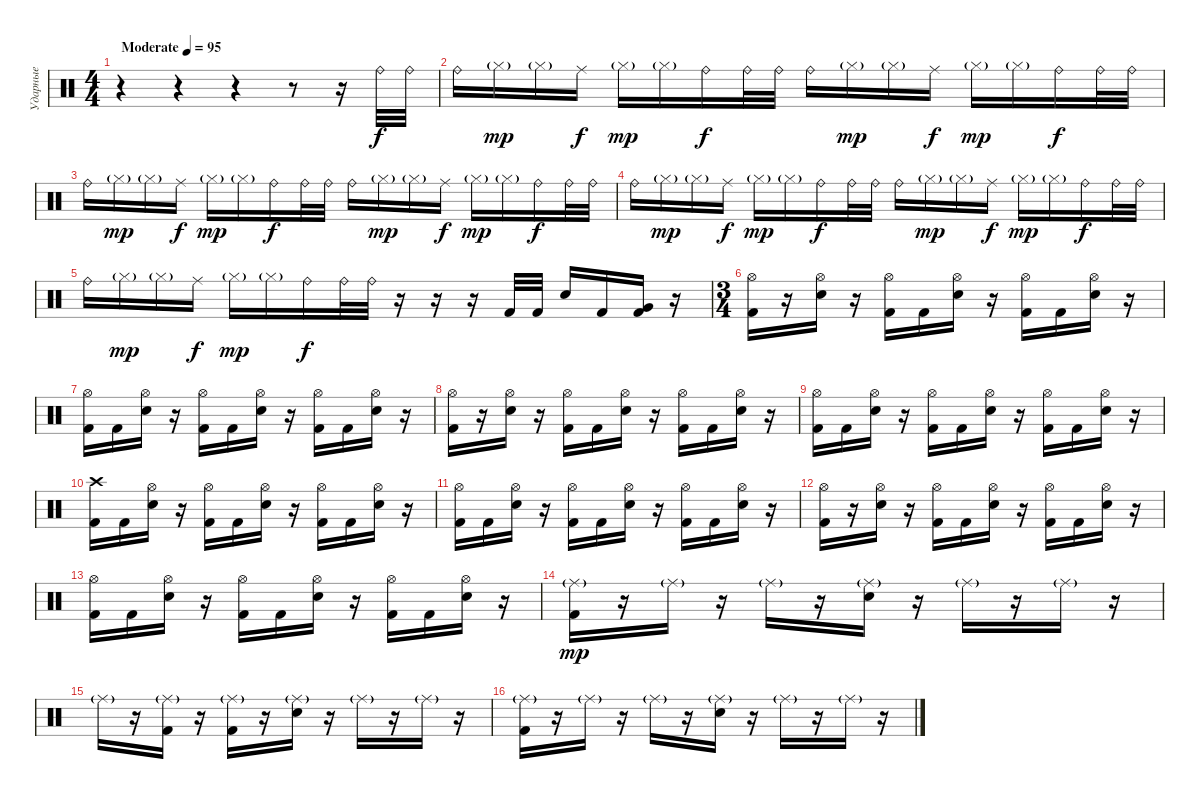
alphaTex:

\track ("Ударные" "Ударные") {instrument percussion}
\staff {score}
\articulation defaults
\ts (4 4)
\tempo (95 "Moderate")
\clef neutral
\ks c
r.4{dy f} r.4 r.4 r.8 r.16 "Ride (bell)".32 "Ride (bell)".32 |
"Ride (bell)".16 "Hi-Hat (closed)"{g}.16{dy mp} "Hi-Hat (closed)"{g}.16 "Ride (middle)".16{dy f} "Hi-Hat (closed)"{g}.16{dy mp} "Hi-Hat (closed)"{g}.16 "Ride (bell)".16{dy f} "Ride (bell)".32 "Ride (bell)".32 "Ride (bell)".16 "Hi-Hat (closed)"{g}.16{dy mp} "Hi-Hat (closed)"{g}.16 "Ride (middle)".16{dy f} "Hi-Hat (closed)"{g}.16{dy mp} "Hi-Hat (closed)"{g}.16 "Ride (bell)".16{dy f} "Ride (bell)".32 "Ride (bell)".32 |
"Ride (bell)".16 "Hi-Hat (closed)"{g}.16{dy mp} "Hi-Hat (closed)"{g}.16 "Ride (middle)".16{dy f} "Hi-Hat (closed)"{g}.16{dy mp} "Hi-Hat (closed)"{g}.16 "Ride (bell)".16{dy f} "Ride (bell)".32 "Ride (bell)".32 "Ride (bell)".16 "Hi-Hat (closed)"{g}.16{dy mp} "Hi-Hat (closed)"{g}.16 "Ride (middle)".16{dy f} "Hi-Hat (closed)"{g}.16{dy mp} "Hi-Hat (closed)"{g}.16 "Ride (bell)".16{dy f} "Ride (bell)".32 "Ride (bell)".32 |
"Ride (bell)".16 "Hi-Hat (closed)"{g}.16{dy mp} "Hi-Hat (closed)"{g}.16 "Ride (middle)".16{dy f} "Hi-Hat (closed)"{g}.16{dy mp} "Hi-Hat (closed)"{g}.16 "Ride (bell)".16{dy f} "Ride (bell)".32 "Ride (bell)".32 "Ride (bell)".16 "Hi-Hat (closed)"{g}.16{dy mp} "Hi-Hat (closed)"{g}.16 "Ride (middle)".16{dy f} "Hi-Hat (closed)"{g}.16{dy mp} "Hi-Hat (closed)"{g}.16 "Ride (bell)".16{dy f} "Ride (bell)".32 "Ride (bell)".32 |
"Ride (bell)".16 "Hi-Hat (closed)"{g}.16{dy mp} "Hi-Hat (closed)"{g}.16 "Ride (middle)".16{dy f} "Hi-Hat (closed)"{g}.16{dy mp} "Hi-Hat (closed)"{g}.16 "Ride (bell)".16{dy f} "Ride (bell)".32 "Ride (bell)".32 r.16 r.16 r.16 "Kick (hit) 2".32 "Kick (hit) 2".32 "Electric Snare (hit)".16 "Kick (hit) 2".16 ("Very Low Tom (hit)" "Kick (hit) 2").16 r.16 |
\ts (3 4)
("Hi-Hat (open)" "Kick (hit) 2").16 r.16 ("Hi-Hat (open)" "Electric Snare (hit)").16 r.16 ("Hi-Hat (open)" "Kick (hit) 2").16 "Kick (hit) 2".16 ("Hi-Hat (open)" "Electric Snare (hit)").16 r.16 ("Hi-Hat (open)" "Kick (hit) 2").16 "Kick (hit) 2".16 ("Hi-Hat (open)" "Electric Snare (hit)").16 r.16 |
("Hi-Hat (open)" "Kick (hit) 2").16 "Kick (hit) 2".16 ("Hi-Hat (open)" "Electric Snare (hit)").16 r.16 ("Hi-Hat (open)" "Kick (hit) 2").16 "Kick (hit) 2".16 ("Hi-Hat (open)" "Electric Snare (hit)").16 r.16 ("Hi-Hat (open)" "Kick (hit) 2").16 "Kick (hit) 2".16 ("Hi-Hat (open)" "Electric Snare (hit)").16 r.16 |
("Hi-Hat (open)" "Kick (hit) 2").16 r.16 ("Hi-Hat (open)" "Electric Snare (hit)").16 r.16 ("Hi-Hat (open)" "Kick (hit) 2").16 "Kick (hit) 2".16 ("Hi-Hat (open)" "Electric Snare (hit)").16 r.16 ("Hi-Hat (open)" "Kick (hit) 2").16 "Kick (hit) 2".16 ("Hi-Hat (open)" "Electric Snare (hit)").16 r.16 |
("Hi-Hat (open)" "Kick (hit) 2").16 "Kick (hit) 2".16 ("Hi-Hat (open)" "Electric Snare (hit)").16 r.16 ("Hi-Hat (open)" "Kick (hit) 2").16 "Kick (hit) 2".16 ("Hi-Hat (open)" "Electric Snare (hit)").16 r.16 ("Hi-Hat (open)" "Kick (hit) 2").16 "Kick (hit) 2".16 ("Hi-Hat (open)" "Electric Snare (hit)").16 r.16 |
("Crash high (hit)" "Kick (hit) 2").16 "Kick (hit) 2".16 ("Hi-Hat (open)" "Electric Snare (hit)").16 r.16 ("Hi-Hat (open)" "Kick (hit) 2").16 "Kick (hit) 2".16 ("Hi-Hat (open)" "Electric Snare (hit)").16 r.16 ("Hi-Hat (open)" "Kick (hit) 2").16 "Kick (hit) 2".16 ("Hi-Hat (open)" "Electric Snare (hit)").16 r.16 |
("Hi-Hat (open)" "Kick (hit) 2").16 "Kick (hit) 2".16 ("Hi-Hat (open)" "Electric Snare (hit)").16 r.16 ("Hi-Hat (open)" "Kick (hit) 2").16 "Kick (hit) 2".16 ("Hi-Hat (open)" "Electric Snare (hit)").16 r.16 ("Hi-Hat (open)" "Kick (hit) 2").16 "Kick (hit) 2".16 ("Hi-Hat (open)" "Electric Snare (hit)").16 r.16 |
("Hi-Hat (open)" "Kick (hit) 2").16 r.16 ("Hi-Hat (open)" "Electric Snare (hit)").16 r.16 ("Hi-Hat (open)" "Kick (hit) 2").16 "Kick (hit) 2".16 ("Hi-Hat (open)" "Electric Snare (hit)").16 r.16 ("Hi-Hat (open)" "Kick (hit) 2").16 "Kick (hit) 2".16 ("Hi-Hat (open)" "Electric Snare (hit)").16 r.16 |
("Hi-Hat (open)" "Kick (hit) 2").16 "Kick (hit) 2".16 ("Hi-Hat (open)" "Electric Snare (hit)").16 r.16 ("Hi-Hat (open)" "Kick (hit) 2").16 "Kick (hit) 2".16 ("Hi-Hat (open)" "Electric Snare (hit)").16 r.16 ("Hi-Hat (open)" "Kick (hit) 2").16 "Kick (hit) 2".16 ("Hi-Hat (open)" "Electric Snare (hit)").16 r.16 |
("Ride (middle)"{g} "Kick (hit) 2").16{dy mp} r.16 "Ride (middle)"{g}.16 r.16 "Ride (middle)"{g}.16 r.16 ("Ride (middle)"{g} "Electric Snare (hit)").16 r.16 "Ride (middle)"{g}.16 r.16 "Ride (middle)"{g}.16 r.16 |
"Ride (middle)"{g}.16 r.16 ("Ride (middle)"{g} "Kick (hit) 2").16 r.16 ("Ride (middle)"{g} "Kick (hit) 2").16 r.16 ("Ride (middle)"{g} "Electric Snare (hit)").16 r.16 "Ride (middle)"{g}.16 r.16 "Ride (middle)"{g}.16 r.16 |
("Ride (middle)"{g} "Kick (hit) 2").16 r.16 "Ride (middle)"{g}.16 r.16 "Ride (middle)"{g}.16 r.16 ("Ride (middle)"{g} "Electric Snare (hit)").16 r.16 "Ride (middle)"{g}.16 r.16 "Ride (middle)"{g}.16 r.16
